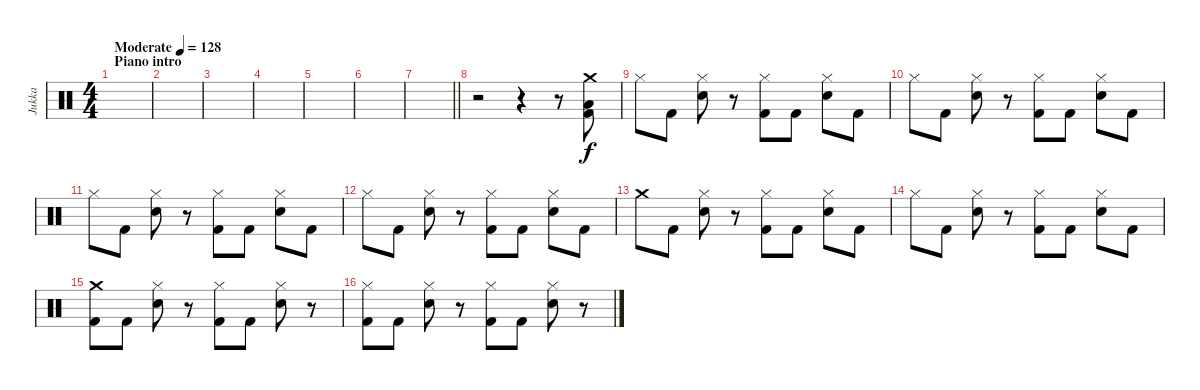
\track ("Jukka" "Jukka") {instrument percussion}
\staff {score}
\articulation defaults
\ts (4 4)
\section ("" "Piano intro")
\tempo (128 "Moderate")
\clef neutral
\ks c
|
|
|
|
|
|
\barLineRight lightlight
|
r.2 r.4 r.8 ("Kick (hit) 2" "Low Floor Tom (hit)" "Crash medium (hit)").8 |
"Hi-Hat (closed)".8 "Kick (hit) 2".8 ("Electric Snare (hit)" "Hi-Hat (closed)").8 r.8 ("Kick (hit) 2" "Hi-Hat (closed)").8 "Kick (hit) 2".8 ("Electric Snare (hit)" "Hi-Hat (closed)").8 "Kick (hit) 2".8 |
"Hi-Hat (closed)".8 "Kick (hit) 2".8 ("Electric Snare (hit)" "Hi-Hat (closed)").8 r.8 ("Kick (hit) 2" "Hi-Hat (closed)").8 "Kick (hit) 2".8 ("Electric Snare (hit)" "Hi-Hat (closed)").8 "Kick (hit) 2".8 |
"Hi-Hat (closed)".8 "Kick (hit) 2".8 ("Electric Snare (hit)" "Hi-Hat (closed)").8 r.8 ("Kick (hit) 2" "Hi-Hat (closed)").8 "Kick (hit) 2".8 ("Electric Snare (hit)" "Hi-Hat (closed)").8 "Kick (hit) 2".8 |
"Hi-Hat (closed)".8 "Kick (hit) 2".8 ("Electric Snare (hit)" "Hi-Hat (closed)").8 r.8 ("Kick (hit) 2" "Hi-Hat (closed)").8 "Kick (hit) 2".8 ("Electric Snare (hit)" "Hi-Hat (closed)").8 "Kick (hit) 2".8 |
"Crash medium (hit)".8 "Kick (hit) 2".8 ("Electric Snare (hit)" "Hi-Hat (closed)").8 r.8 ("Kick (hit) 2" "Hi-Hat (closed)").8 "Kick (hit) 2".8 ("Electric Snare (hit)" "Hi-Hat (closed)").8 "Kick (hit) 2".8 |
"Hi-Hat (closed)".8 "Kick (hit) 2".8 ("Electric Snare (hit)" "Hi-Hat (closed)").8 r.8 ("Kick (hit) 2" "Hi-Hat (closed)").8 "Kick (hit) 2".8 ("Electric Snare (hit)" "Hi-Hat (closed)").8 "Kick (hit) 2".8 |
("Kick (hit) 2" "Crash medium (hit)").8 "Kick (hit) 2".8 ("Electric Snare (hit)" "Hi-Hat (closed)").8 r.8 ("Kick (hit) 2" "Hi-Hat (closed)").8 "Kick (hit) 2".8 ("Electric Snare (hit)" "Hi-Hat (closed)").8 r.8 |
("Kick (hit) 2" "Hi-Hat (closed)").8 "Kick (hit) 2".8 ("Electric Snare (hit)" "Hi-Hat (closed)").8 r.8 ("Kick (hit) 2" "Hi-Hat (closed)").8 "Kick (hit) 2".8 ("Electric Snare (hit)" "Hi-Hat (closed)").8 r.8
